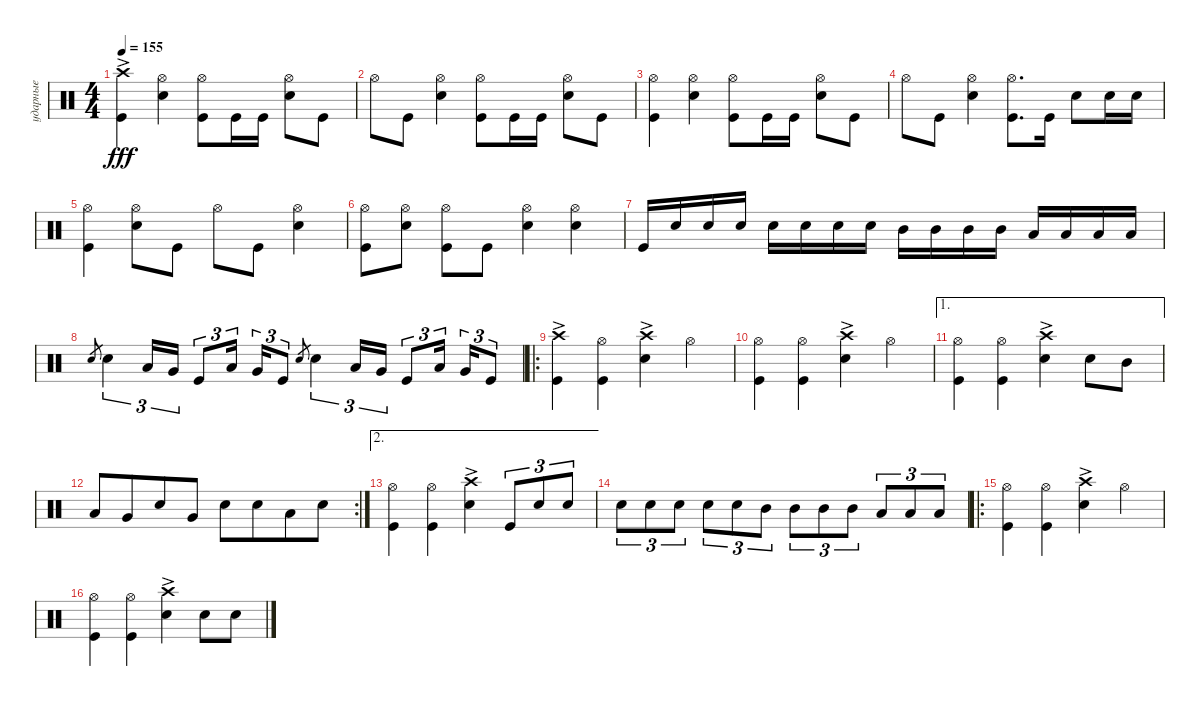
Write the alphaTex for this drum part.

\track ("ударные" "ударные") {instrument percussion}
\staff {score}
\articulation defaults
\ts (4 4)
\tempo 155
\clef neutral
\ks aminor
("Kick (hit)" "Crash high (hit)"{ac}).4{dy fff} ("Snare (hit) 2" "Hi-Hat (open)").4 ("Kick (hit)" "Hi-Hat (open)").8 "Kick (hit)".16 "Kick (hit)".16 ("Snare (hit) 2" "Hi-Hat (open)").8 "Kick (hit)".8 |
"Hi-Hat (open)".8 "Kick (hit)".8 ("Snare (hit) 2" "Hi-Hat (open)").4 ("Kick (hit)" "Hi-Hat (open)").8 "Kick (hit)".16 "Kick (hit)".16 ("Snare (hit) 2" "Hi-Hat (open)").8 "Kick (hit)".8 |
("Kick (hit)" "Hi-Hat (open)").4 ("Snare (hit) 2" "Hi-Hat (open)").4 ("Kick (hit)" "Hi-Hat (open)").8 "Kick (hit)".16 "Kick (hit)".16 ("Snare (hit) 2" "Hi-Hat (open)").8 "Kick (hit)".8 |
"Hi-Hat (open)".8 "Kick (hit)".8 ("Snare (hit) 2" "Hi-Hat (open)").4 ("Kick (hit)" "Hi-Hat (open)").8{d} "Kick (hit)".16 "Snare (hit) 2".8 "Snare (hit) 2".16 "Snare (hit) 2".16 |
("Kick (hit)" "Hi-Hat (open)").4 ("Snare (hit) 2" "Hi-Hat (open)").8 "Kick (hit)".8 "Hi-Hat (open)".8 "Kick (hit)".8 ("Snare (hit) 2" "Hi-Hat (open)").4 |
("Kick (hit)" "Hi-Hat (open)").8 ("Snare (hit) 2" "Hi-Hat (open)").8 ("Kick (hit)" "Hi-Hat (open)").8 "Kick (hit)".8 ("Snare (hit) 2" "Hi-Hat (open)").4 ("Snare (hit) 2" "Hi-Hat (open)").4 |
"Kick (hit)".16 "Snare (hit) 2".16 "Snare (hit) 2".16 "Snare (hit) 2".16 "Snare (hit) 2".16 "Snare (hit) 2".16 "Snare (hit) 2".16 "Snare (hit) 2".16 "Mid Tom (hit)".16 "Mid Tom (hit)".16 "Mid Tom (hit)".16 "Mid Tom (hit)".16 "Low Tom (hit)".16 "Low Tom (hit)".16 "Low Tom (hit)".16 "Low Tom (hit)".16 |
"Snare (hit) 2".8{gr} "Snare (hit) 2".4{tu (3 2)} "Low Tom (hit)".16{tu (3 2)} "Very Low Tom (hit)".16{tu (3 2)} "Kick (hit)".8{tu (3 2)} "Low Tom (hit)".16{tu (3 2) beam splitsecondary} "Very Low Tom (hit)".16{tu (3 2)} "Kick (hit)".8{tu (3 2)} "Snare (hit) 2".8{gr} "Snare (hit) 2".4{tu (3 2)} "Low Tom (hit)".16{tu (3 2)} "Very Low Tom (hit)".16{tu (3 2)} "Kick (hit)".8{tu (3 2)} "Low Tom (hit)".16{tu (3 2) beam splitsecondary} "Very Low Tom (hit)".16{tu (3 2)} "Kick (hit)".8{tu (3 2)} |
\ro
("Kick (hit)" "Crash high (hit)"{ac}).4 ("Kick (hit)" "Hi-Hat (open)").4 ("Snare (hit) 2" "Crash high (hit)"{ac}).4 "Hi-Hat (open)".4 |
("Kick (hit)" "Hi-Hat (open)").4 ("Kick (hit)" "Hi-Hat (open)").4 ("Snare (hit) 2" "Crash high (hit)"{ac}).4 "Hi-Hat (open)".4 |
\ae 1
("Kick (hit)" "Hi-Hat (open)").4 ("Kick (hit)" "Hi-Hat (open)").4 ("Snare (hit) 2" "Crash high (hit)"{ac}).4 "Snare (hit) 2".8 "Mid Tom (hit)".8 |
\rc 2 "Low Tom (hit)".8 "Very Low Tom (hit)".8{beam merge} "Snare (hit) 2".8 "Very Low Tom (hit)".8 "Snare (hit) 2".8 "Snare (hit) 2".8{beam merge} "Low Tom (hit)".8 "Snare (hit) 2".8
|
\ae 2
("Kick (hit)" "Hi-Hat (open)").4 ("Kick (hit)" "Hi-Hat (open)").4 ("Snare (hit) 2" "Crash high (hit)"{ac}).4 "Kick (hit)".8{tu (3 2)} "Snare (hit) 2".8{tu (3 2)} "Snare (hit) 2".8{tu (3 2)} |
"Snare (hit) 2".8{tu (3 2)} "Snare (hit) 2".8{tu (3 2)} "Snare (hit) 2".8{tu (3 2)} "Snare (hit) 2".8{tu (3 2)} "Snare (hit) 2".8{tu (3 2)} "Mid Tom (hit)".8{tu (3 2)} "Mid Tom (hit)".8{tu (3 2)} "Mid Tom (hit)".8{tu (3 2)} "Mid Tom (hit)".8{tu (3 2)} "Low Tom (hit)".8{tu (3 2)} "Low Tom (hit)".8{tu (3 2)} "Low Tom (hit)".8{tu (3 2)} |
\ro
("Kick (hit)" "Hi-Hat (open)").4 ("Kick (hit)" "Hi-Hat (open)").4 ("Snare (hit) 2" "Crash high (hit)"{ac}).4 "Hi-Hat (open)".4 |
("Kick (hit)" "Hi-Hat (open)").4 ("Kick (hit)" "Hi-Hat (open)").4 ("Snare (hit) 2" "Crash high (hit)"{ac}).4 "Snare (hit) 2".8 "Snare (hit) 2".8
